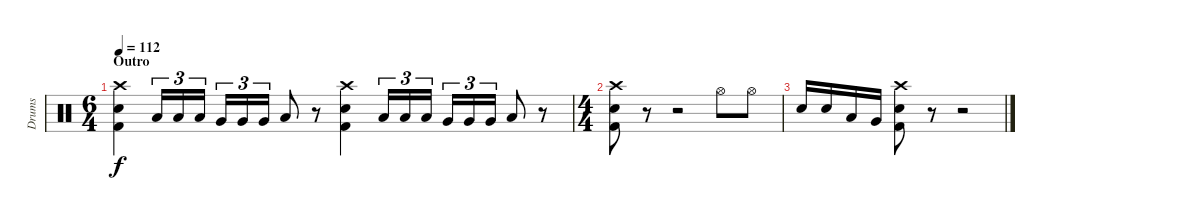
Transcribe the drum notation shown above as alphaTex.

\track ("Drums" "Drums") {instrument percussion}
\staff {score}
\articulation defaults
\ts (6 4)
\section ("" "Outro")
\tempo 112
\clef neutral
\ks c
("Crash high (hit)" "Snare (hit) 2" "Kick (hit) 2").4{dy f} "Low Tom (hit)".16{tu (3 2)} "Low Tom (hit)".16{tu (3 2)} "Low Tom (hit)".16{tu (3 2) beam splitsecondary} "Very Low Tom (hit)".16{tu (3 2)} "Very Low Tom (hit)".16{tu (3 2)} "Very Low Tom (hit)".16{tu (3 2)} "Low Floor Tom (hit)".8 r.8 ("Crash high (hit)" "Snare (hit) 2" "Kick (hit) 2").4 "Low Tom (hit)".16{tu (3 2)} "Low Tom (hit)".16{tu (3 2)} "Low Tom (hit)".16{tu (3 2) beam splitsecondary} "Very Low Tom (hit)".16{tu (3 2)} "Very Low Tom (hit)".16{tu (3 2)} "Very Low Tom (hit)".16{tu (3 2)} "Low Floor Tom (hit)".8 r.8 |
\ts (4 4)
("Crash high (hit)" "Snare (hit) 2" "Kick (hit) 2").8 r.8 r.2 "Hi-Hat (open)".8 "Hi-Hat (open)".8 |
"Snare (hit) 2".16 "Snare (hit) 2".16 "Low Tom (hit)".16 "Very Low Tom (hit)".16 ("Crash high (hit)" "Snare (hit) 2" "Kick (hit) 2").8 r.8 r.2
